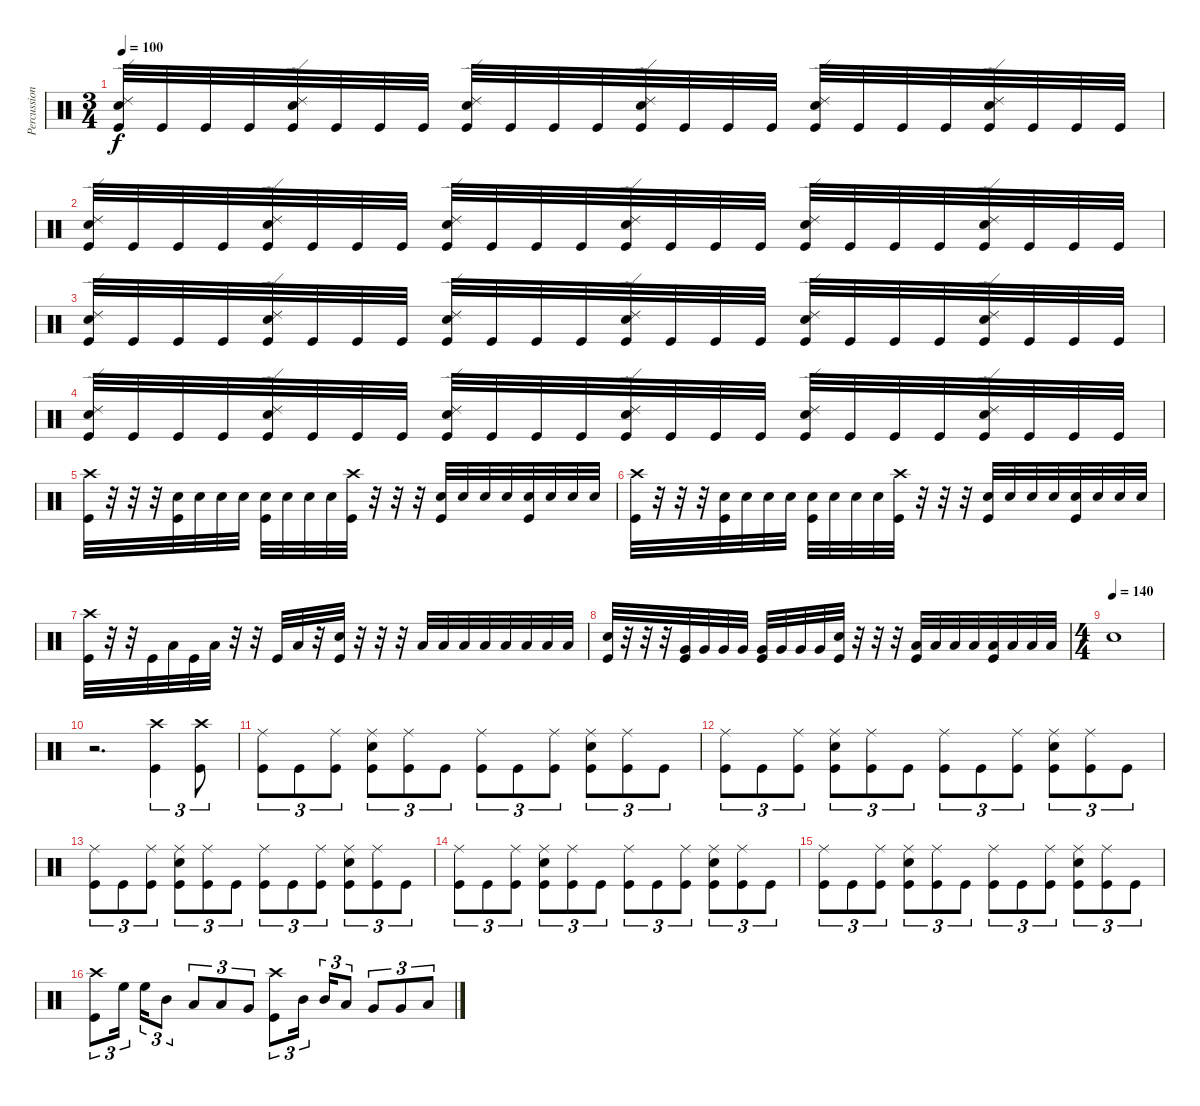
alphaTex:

\track ("Percussion" "Percussion") {instrument percussion}
\staff {score}
\articulation defaults
\ts (3 4)
\tempo 100
\clef neutral
\ks c
("Ride (edge) 2" "Snare (hit) 2" "Kick (hit)").32{dy f} "Kick (hit)".32 "Kick (hit)".32 "Kick (hit)".32 ("Ride (edge) 2" "Snare (hit) 2" "Kick (hit)").32 "Kick (hit)".32 "Kick (hit)".32 "Kick (hit)".32 ("Ride (edge) 2" "Snare (hit) 2" "Kick (hit)").32 "Kick (hit)".32 "Kick (hit)".32 "Kick (hit)".32 ("Ride (edge) 2" "Snare (hit) 2" "Kick (hit)").32 "Kick (hit)".32 "Kick (hit)".32 "Kick (hit)".32 ("Ride (edge) 2" "Snare (hit) 2" "Kick (hit)").32 "Kick (hit)".32 "Kick (hit)".32 "Kick (hit)".32 ("Ride (edge) 2" "Snare (hit) 2" "Kick (hit)").32 "Kick (hit)".32 "Kick (hit)".32 "Kick (hit)".32 |
("Ride (edge) 2" "Snare (hit) 2" "Kick (hit)").32 "Kick (hit)".32 "Kick (hit)".32 "Kick (hit)".32 ("Ride (edge) 2" "Snare (hit) 2" "Kick (hit)").32 "Kick (hit)".32 "Kick (hit)".32 "Kick (hit)".32 ("Ride (edge) 2" "Snare (hit) 2" "Kick (hit)").32 "Kick (hit)".32 "Kick (hit)".32 "Kick (hit)".32 ("Ride (edge) 2" "Snare (hit) 2" "Kick (hit)").32 "Kick (hit)".32 "Kick (hit)".32 "Kick (hit)".32 ("Ride (edge) 2" "Snare (hit) 2" "Kick (hit)").32 "Kick (hit)".32 "Kick (hit)".32 "Kick (hit)".32 ("Ride (edge) 2" "Snare (hit) 2" "Kick (hit)").32 "Kick (hit)".32 "Kick (hit)".32 "Kick (hit)".32 |
("Ride (edge) 2" "Snare (hit) 2" "Kick (hit)").32 "Kick (hit)".32 "Kick (hit)".32 "Kick (hit)".32 ("Ride (edge) 2" "Snare (hit) 2" "Kick (hit)").32 "Kick (hit)".32 "Kick (hit)".32 "Kick (hit)".32 ("Ride (edge) 2" "Snare (hit) 2" "Kick (hit)").32 "Kick (hit)".32 "Kick (hit)".32 "Kick (hit)".32 ("Ride (edge) 2" "Snare (hit) 2" "Kick (hit)").32 "Kick (hit)".32 "Kick (hit)".32 "Kick (hit)".32 ("Ride (edge) 2" "Snare (hit) 2" "Kick (hit)").32 "Kick (hit)".32 "Kick (hit)".32 "Kick (hit)".32 ("Ride (edge) 2" "Snare (hit) 2" "Kick (hit)").32 "Kick (hit)".32 "Kick (hit)".32 "Kick (hit)".32 |
("Ride (edge) 2" "Snare (hit) 2" "Kick (hit)").32 "Kick (hit)".32 "Kick (hit)".32 "Kick (hit)".32 ("Ride (edge) 2" "Snare (hit) 2" "Kick (hit)").32 "Kick (hit)".32 "Kick (hit)".32 "Kick (hit)".32 ("Ride (edge) 2" "Snare (hit) 2" "Kick (hit)").32 "Kick (hit)".32 "Kick (hit)".32 "Kick (hit)".32 ("Ride (edge) 2" "Snare (hit) 2" "Kick (hit)").32 "Kick (hit)".32 "Kick (hit)".32 "Kick (hit)".32 ("Ride (edge) 2" "Snare (hit) 2" "Kick (hit)").32 "Kick (hit)".32 "Kick (hit)".32 "Kick (hit)".32 ("Ride (edge) 2" "Snare (hit) 2" "Kick (hit)").32 "Kick (hit)".32 "Kick (hit)".32 "Kick (hit)".32 |
("Crash high (hit)" "Kick (hit)").32 r.32 r.32 r.32 ("Snare (hit) 2" "Kick (hit)").32 "Snare (hit) 2".32 "Snare (hit) 2".32 "Snare (hit) 2".32 ("Snare (hit) 2" "Kick (hit)").32 "Snare (hit) 2".32 "Snare (hit) 2".32 "Snare (hit) 2".32 ("Crash high (hit)" "Kick (hit)").32 r.32 r.32 r.32 ("Snare (hit) 2" "Kick (hit)").32 "Snare (hit) 2".32 "Snare (hit) 2".32 "Snare (hit) 2".32 ("Snare (hit) 2" "Kick (hit)").32 "Snare (hit) 2".32 "Snare (hit) 2".32 "Snare (hit) 2".32 |
("Crash high (hit)" "Kick (hit)").32 r.32 r.32 r.32 ("Snare (hit) 2" "Kick (hit)").32 "Snare (hit) 2".32 "Snare (hit) 2".32 "Snare (hit) 2".32 ("Snare (hit) 2" "Kick (hit)").32 "Snare (hit) 2".32 "Snare (hit) 2".32 "Snare (hit) 2".32 ("Crash high (hit)" "Kick (hit)").32 r.32 r.32 r.32 ("Snare (hit) 2" "Kick (hit)").32 "Snare (hit) 2".32 "Snare (hit) 2".32 "Snare (hit) 2".32 ("Snare (hit) 2" "Kick (hit)").32 "Snare (hit) 2".32 "Snare (hit) 2".32 "Snare (hit) 2".32 |
("Crash high (hit)" "Kick (hit)").32 r.32 r.32 "Kick (hit)".32 "Low Tom (hit)".32 "Kick (hit)".32 "Low Tom (hit)".32 r.32 r.32 "Kick (hit)".32 "Low Tom (hit)".32 r.32 ("Snare (hit) 2" "Kick (hit)").32 r.32 r.32 r.32 "Low Tom (hit)".32 "Low Tom (hit)".32 "Low Tom (hit)".32 "Low Tom (hit)".32 "Low Tom (hit)".32 "Low Tom (hit)".32 "Low Tom (hit)".32 "Low Tom (hit)".32 |
("Snare (hit) 2" "Kick (hit)").32 r.32 r.32 r.32 ("Very Low Tom (hit)" "Kick (hit)").32 "Very Low Tom (hit)".32 "Very Low Tom (hit)".32 "Very Low Tom (hit)".32 ("Very Low Tom (hit)" "Kick (hit)").32 "Very Low Tom (hit)".32 "Very Low Tom (hit)".32 "Very Low Tom (hit)".32 ("Snare (hit) 2" "Kick (hit)").32 r.32 r.32 r.32 ("Low Floor Tom (hit)" "Kick (hit)").32 "Low Floor Tom (hit)".32 "Low Floor Tom (hit)".32 "Low Floor Tom (hit)".32 ("Low Floor Tom (hit)" "Kick (hit)").32 "Low Floor Tom (hit)".32 "Low Floor Tom (hit)".32 "Low Floor Tom (hit)".32 |
\ts (4 4)
\tempo (140)
"Electric Snare (hit)".1 |
r.2{d} ("Crash high (hit)" "Kick (hit)").4{tu (3 2)} ("Crash high (hit)" "Kick (hit)").8{tu (3 2)} |
("Ride (middle)" "Kick (hit)").8{tu (3 2)} "Kick (hit)".8{tu (3 2)} ("Ride (middle)" "Kick (hit)").8{tu (3 2)} ("Ride (middle)" "Snare (hit) 2" "Kick (hit)").8{tu (3 2)} ("Ride (middle)" "Kick (hit)").8{tu (3 2)} "Kick (hit)".8{tu (3 2)} ("Ride (middle)" "Kick (hit)").8{tu (3 2)} "Kick (hit)".8{tu (3 2)} ("Ride (middle)" "Kick (hit)").8{tu (3 2)} ("Ride (middle)" "Snare (hit) 2" "Kick (hit)").8{tu (3 2)} ("Ride (middle)" "Kick (hit)").8{tu (3 2)} "Kick (hit)".8{tu (3 2)} |
("Ride (middle)" "Kick (hit)").8{tu (3 2)} "Kick (hit)".8{tu (3 2)} ("Ride (middle)" "Kick (hit)").8{tu (3 2)} ("Ride (middle)" "Snare (hit) 2" "Kick (hit)").8{tu (3 2)} ("Ride (middle)" "Kick (hit)").8{tu (3 2)} "Kick (hit)".8{tu (3 2)} ("Ride (middle)" "Kick (hit)").8{tu (3 2)} "Kick (hit)".8{tu (3 2)} ("Ride (middle)" "Kick (hit)").8{tu (3 2)} ("Ride (middle)" "Snare (hit) 2" "Kick (hit)").8{tu (3 2)} ("Ride (middle)" "Kick (hit)").8{tu (3 2)} "Kick (hit)".8{tu (3 2)} |
("Ride (middle)" "Kick (hit)").8{tu (3 2)} "Kick (hit)".8{tu (3 2)} ("Ride (middle)" "Kick (hit)").8{tu (3 2)} ("Ride (middle)" "Snare (hit) 2" "Kick (hit)").8{tu (3 2)} ("Ride (middle)" "Kick (hit)").8{tu (3 2)} "Kick (hit)".8{tu (3 2)} ("Ride (middle)" "Kick (hit)").8{tu (3 2)} "Kick (hit)".8{tu (3 2)} ("Ride (middle)" "Kick (hit)").8{tu (3 2)} ("Ride (middle)" "Snare (hit) 2" "Kick (hit)").8{tu (3 2)} ("Ride (middle)" "Kick (hit)").8{tu (3 2)} "Kick (hit)".8{tu (3 2)} |
("Ride (middle)" "Kick (hit)").8{tu (3 2)} "Kick (hit)".8{tu (3 2)} ("Ride (middle)" "Kick (hit)").8{tu (3 2)} ("Ride (middle)" "Snare (hit) 2" "Kick (hit)").8{tu (3 2)} ("Ride (middle)" "Kick (hit)").8{tu (3 2)} "Kick (hit)".8{tu (3 2)} ("Ride (middle)" "Kick (hit)").8{tu (3 2)} "Kick (hit)".8{tu (3 2)} ("Ride (middle)" "Kick (hit)").8{tu (3 2)} ("Ride (middle)" "Snare (hit) 2" "Kick (hit)").8{tu (3 2)} ("Ride (middle)" "Kick (hit)").8{tu (3 2)} "Kick (hit)".8{tu (3 2)} |
("Ride (middle)" "Kick (hit)").8{tu (3 2)} "Kick (hit)".8{tu (3 2)} ("Ride (middle)" "Kick (hit)").8{tu (3 2)} ("Ride (middle)" "Snare (hit) 2" "Kick (hit)").8{tu (3 2)} ("Ride (middle)" "Kick (hit)").8{tu (3 2)} "Kick (hit)".8{tu (3 2)} ("Ride (middle)" "Kick (hit)").8{tu (3 2)} "Kick (hit)".8{tu (3 2)} ("Ride (middle)" "Kick (hit)").8{tu (3 2)} ("Ride (middle)" "Snare (hit) 2" "Kick (hit)").8{tu (3 2)} ("Ride (middle)" "Kick (hit)").8{tu (3 2)} "Kick (hit)".8{tu (3 2)} |
("Crash high (hit)" "Kick (hit)").8{tu (3 2)} "High Floor Tom (hit)".16{tu (3 2) beam splitsecondary} "High Floor Tom (hit)".16{tu (3 2)} "Mid Tom (hit)".8{tu (3 2)} "Low Tom (hit)".8{tu (3 2)} "Low Tom (hit)".8{tu (3 2)} "Very Low Tom (hit)".8{tu (3 2)} ("Crash high (hit)" "Kick (hit)").8{tu (3 2)} "Mid Tom (hit)".16{tu (3 2) beam splitsecondary} "Mid Tom (hit)".16{tu (3 2)} "Low Tom (hit)".8{tu (3 2)} "Very Low Tom (hit)".8{tu (3 2)} "Very Low Tom (hit)".8{tu (3 2)} "Low Floor Tom (hit)".8{tu (3 2)}
